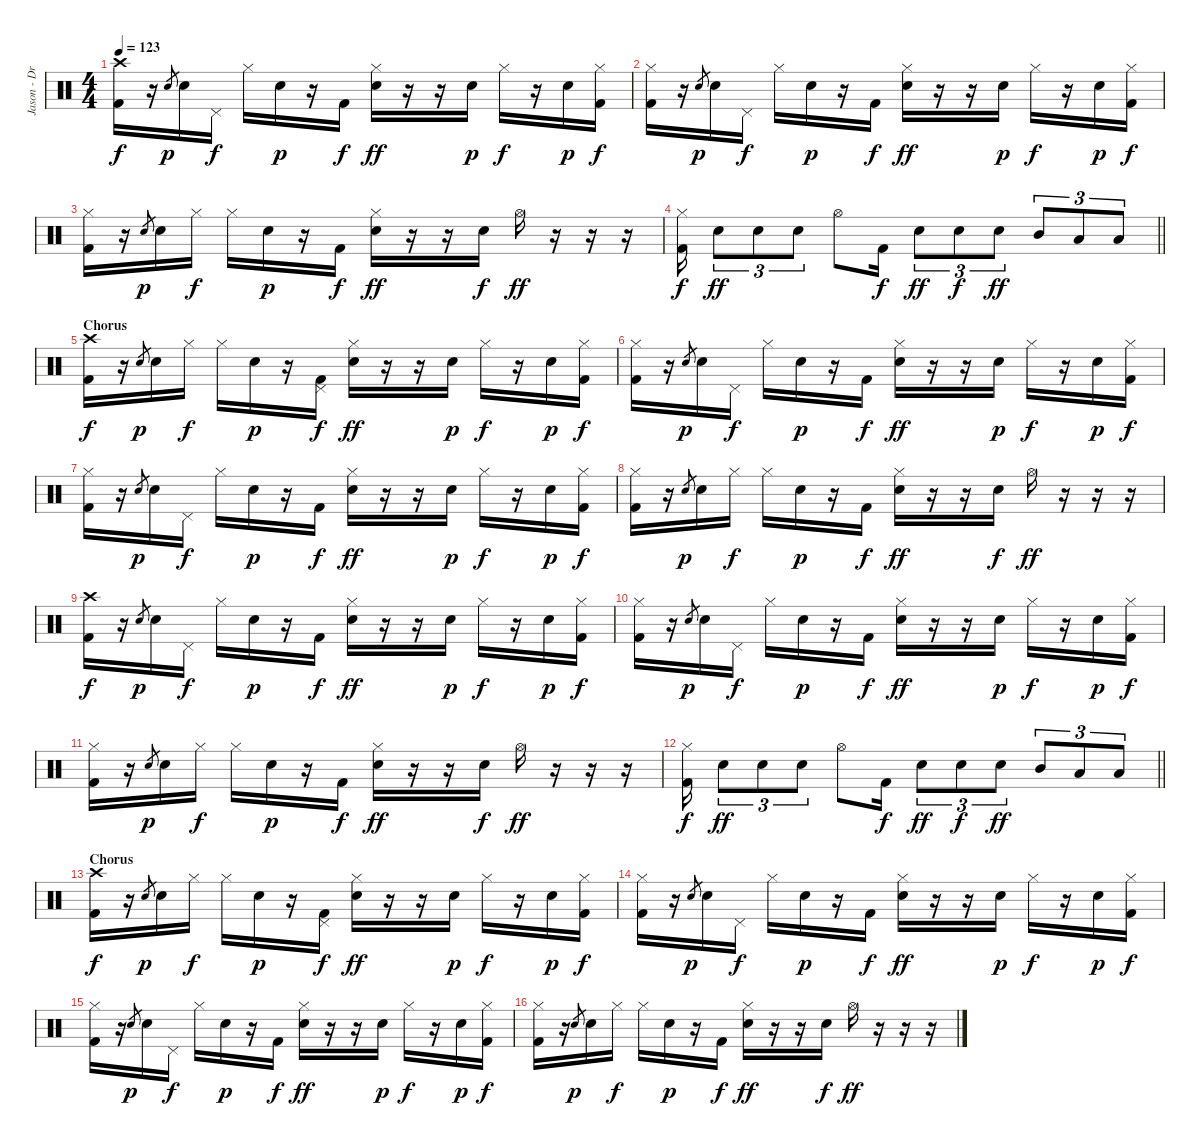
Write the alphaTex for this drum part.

\track ("Jason - Drums" "Jason - Dr") {instrument percussion}
\staff {score}
\articulation defaults
\ts (4 4)
\tempo 123
\clef neutral
\ks c
("Crash high (hit)" "Kick (hit) 2").16{dy f} r.16 "Snare (hit) 2".8{gr dy p} "Snare (hit) 2".16 "Pedal Hi-Hat (hit)".16{dy f} "Hi-Hat (closed)".16 "Snare (hit) 2".16{dy p} r.16 "Kick (hit) 2".16{dy f} ("Hi-Hat (closed)" "Electric Snare (hit)").16{dy ff} r.16 r.16 "Snare (hit) 2".16{dy p} "Hi-Hat (closed)".16{dy f} r.16 "Snare (hit) 2".16{dy p} ("Hi-Hat (closed)" "Kick (hit) 2").16{dy f} |
("Hi-Hat (closed)" "Kick (hit) 2").16 r.16 "Snare (hit) 2".8{gr dy p} "Snare (hit) 2".16 "Pedal Hi-Hat (hit)".16{dy f} "Hi-Hat (closed)".16 "Snare (hit) 2".16{dy p} r.16 "Kick (hit) 2".16{dy f} ("Hi-Hat (closed)" "Electric Snare (hit)").16{dy ff} r.16 r.16 "Snare (hit) 2".16{dy p} "Hi-Hat (closed)".16{dy f} r.16 "Snare (hit) 2".16{dy p} ("Hi-Hat (closed)" "Kick (hit) 2").16{dy f} |
("Hi-Hat (closed)" "Kick (hit) 2").16 r.16 "Snare (hit) 2".8{gr dy p} "Snare (hit) 2".16 "Hi-Hat (closed)".16{dy f} "Hi-Hat (closed)".16 "Snare (hit) 2".16{dy p} r.16 "Kick (hit) 2".16{dy f} ("Hi-Hat (closed)" "Electric Snare (hit)").16{dy ff} r.16 r.16 "Electric Snare (hit)".16{dy f} "Hi-Hat (open)".16{dy ff} r.16 r.16 r.16 |
\barLineRight lightlight
("Hi-Hat (closed)" "Kick (hit) 2").16{dy f} "Snare (hit) 2".8{tu (3 2) dy ff} "Snare (hit) 2".8{tu (3 2)} "Snare (hit) 2".8{tu (3 2)} "Hi-Hat (open)".8 "Kick (hit) 2".16{dy f} "Electric Snare (hit)".8{tu (3 2) dy ff} "Electric Snare (hit)".8{tu (3 2) dy f} "Electric Snare (hit)".8{tu (3 2) dy ff} "Mid Tom (hit)".8{tu (3 2)} "Low Tom (hit)".8{tu (3 2)} "Low Tom (hit)".8{tu (3 2)} |
\section ("" "Chorus")
("Crash high (hit)" "Kick (hit) 2").16{dy f} r.16 "Snare (hit) 2".8{gr dy p} "Snare (hit) 2".16 "Hi-Hat (closed)".16{dy f} "Hi-Hat (closed)".16 "Snare (hit) 2".16{dy p} r.16 ("Pedal Hi-Hat (hit)" "Kick (hit) 2").16{dy f} ("Hi-Hat (closed)" "Electric Snare (hit)").16{dy ff} r.16 r.16 "Snare (hit) 2".16{dy p} "Hi-Hat (closed)".16{dy f} r.16 "Snare (hit) 2".16{dy p} ("Hi-Hat (closed)" "Kick (hit) 2").16{dy f} |
("Hi-Hat (closed)" "Kick (hit) 2").16 r.16 "Snare (hit) 2".8{gr dy p} "Snare (hit) 2".16 "Pedal Hi-Hat (hit)".16{dy f} "Hi-Hat (closed)".16 "Snare (hit) 2".16{dy p} r.16 "Kick (hit) 2".16{dy f} ("Hi-Hat (closed)" "Electric Snare (hit)").16{dy ff} r.16 r.16 "Snare (hit) 2".16{dy p} "Hi-Hat (closed)".16{dy f} r.16 "Snare (hit) 2".16{dy p} ("Hi-Hat (closed)" "Kick (hit) 2").16{dy f} |
("Hi-Hat (closed)" "Kick (hit) 2").16 r.16 "Snare (hit) 2".8{gr dy p} "Snare (hit) 2".16 "Pedal Hi-Hat (hit)".16{dy f} "Hi-Hat (closed)".16 "Snare (hit) 2".16{dy p} r.16 "Kick (hit) 2".16{dy f} ("Hi-Hat (closed)" "Electric Snare (hit)").16{dy ff} r.16 r.16 "Snare (hit) 2".16{dy p} "Hi-Hat (closed)".16{dy f} r.16 "Snare (hit) 2".16{dy p} ("Hi-Hat (closed)" "Kick (hit) 2").16{dy f} |
("Hi-Hat (closed)" "Kick (hit) 2").16 r.16 "Snare (hit) 2".8{gr dy p} "Snare (hit) 2".16 "Hi-Hat (closed)".16{dy f} "Hi-Hat (closed)".16 "Snare (hit) 2".16{dy p} r.16 "Kick (hit) 2".16{dy f} ("Hi-Hat (closed)" "Electric Snare (hit)").16{dy ff} r.16 r.16 "Electric Snare (hit)".16{dy f} "Hi-Hat (open)".16{dy ff} r.16 r.16 r.16 |
("Crash high (hit)" "Kick (hit) 2").16{dy f} r.16 "Snare (hit) 2".8{gr dy p} "Snare (hit) 2".16 "Pedal Hi-Hat (hit)".16{dy f} "Hi-Hat (closed)".16 "Snare (hit) 2".16{dy p} r.16 "Kick (hit) 2".16{dy f} ("Hi-Hat (closed)" "Electric Snare (hit)").16{dy ff} r.16 r.16 "Snare (hit) 2".16{dy p} "Hi-Hat (closed)".16{dy f} r.16 "Snare (hit) 2".16{dy p} ("Hi-Hat (closed)" "Kick (hit) 2").16{dy f} |
("Hi-Hat (closed)" "Kick (hit) 2").16 r.16 "Snare (hit) 2".8{gr dy p} "Snare (hit) 2".16 "Pedal Hi-Hat (hit)".16{dy f} "Hi-Hat (closed)".16 "Snare (hit) 2".16{dy p} r.16 "Kick (hit) 2".16{dy f} ("Hi-Hat (closed)" "Electric Snare (hit)").16{dy ff} r.16 r.16 "Snare (hit) 2".16{dy p} "Hi-Hat (closed)".16{dy f} r.16 "Snare (hit) 2".16{dy p} ("Hi-Hat (closed)" "Kick (hit) 2").16{dy f} |
("Hi-Hat (closed)" "Kick (hit) 2").16 r.16 "Snare (hit) 2".8{gr dy p} "Snare (hit) 2".16 "Hi-Hat (closed)".16{dy f} "Hi-Hat (closed)".16 "Snare (hit) 2".16{dy p} r.16 "Kick (hit) 2".16{dy f} ("Hi-Hat (closed)" "Electric Snare (hit)").16{dy ff} r.16 r.16 "Electric Snare (hit)".16{dy f} "Hi-Hat (open)".16{dy ff} r.16 r.16 r.16 |
\barLineRight lightlight
("Hi-Hat (closed)" "Kick (hit) 2").16{dy f} "Snare (hit) 2".8{tu (3 2) dy ff} "Snare (hit) 2".8{tu (3 2)} "Snare (hit) 2".8{tu (3 2)} "Hi-Hat (open)".8 "Kick (hit) 2".16{dy f} "Electric Snare (hit)".8{tu (3 2) dy ff} "Electric Snare (hit)".8{tu (3 2) dy f} "Electric Snare (hit)".8{tu (3 2) dy ff} "Mid Tom (hit)".8{tu (3 2)} "Low Tom (hit)".8{tu (3 2)} "Low Tom (hit)".8{tu (3 2)} |
\section ("" "Chorus")
("Crash high (hit)" "Kick (hit) 2").16{dy f} r.16 "Snare (hit) 2".8{gr dy p} "Snare (hit) 2".16 "Hi-Hat (closed)".16{dy f} "Hi-Hat (closed)".16 "Snare (hit) 2".16{dy p} r.16 ("Pedal Hi-Hat (hit)" "Kick (hit) 2").16{dy f} ("Hi-Hat (closed)" "Electric Snare (hit)").16{dy ff} r.16 r.16 "Snare (hit) 2".16{dy p} "Hi-Hat (closed)".16{dy f} r.16 "Snare (hit) 2".16{dy p} ("Hi-Hat (closed)" "Kick (hit) 2").16{dy f} |
("Hi-Hat (closed)" "Kick (hit) 2").16 r.16 "Snare (hit) 2".8{gr dy p} "Snare (hit) 2".16 "Pedal Hi-Hat (hit)".16{dy f} "Hi-Hat (closed)".16 "Snare (hit) 2".16{dy p} r.16 "Kick (hit) 2".16{dy f} ("Hi-Hat (closed)" "Electric Snare (hit)").16{dy ff} r.16 r.16 "Snare (hit) 2".16{dy p} "Hi-Hat (closed)".16{dy f} r.16 "Snare (hit) 2".16{dy p} ("Hi-Hat (closed)" "Kick (hit) 2").16{dy f} |
("Hi-Hat (closed)" "Kick (hit) 2").16 r.16 "Snare (hit) 2".8{gr dy p} "Snare (hit) 2".16 "Pedal Hi-Hat (hit)".16{dy f} "Hi-Hat (closed)".16 "Snare (hit) 2".16{dy p} r.16 "Kick (hit) 2".16{dy f} ("Hi-Hat (closed)" "Electric Snare (hit)").16{dy ff} r.16 r.16 "Snare (hit) 2".16{dy p} "Hi-Hat (closed)".16{dy f} r.16 "Snare (hit) 2".16{dy p} ("Hi-Hat (closed)" "Kick (hit) 2").16{dy f} |
("Hi-Hat (closed)" "Kick (hit) 2").16 r.16 "Snare (hit) 2".8{gr dy p} "Snare (hit) 2".16 "Hi-Hat (closed)".16{dy f} "Hi-Hat (closed)".16 "Snare (hit) 2".16{dy p} r.16 "Kick (hit) 2".16{dy f} ("Hi-Hat (closed)" "Electric Snare (hit)").16{dy ff} r.16 r.16 "Electric Snare (hit)".16{dy f} "Hi-Hat (open)".16{dy ff} r.16 r.16 r.16
